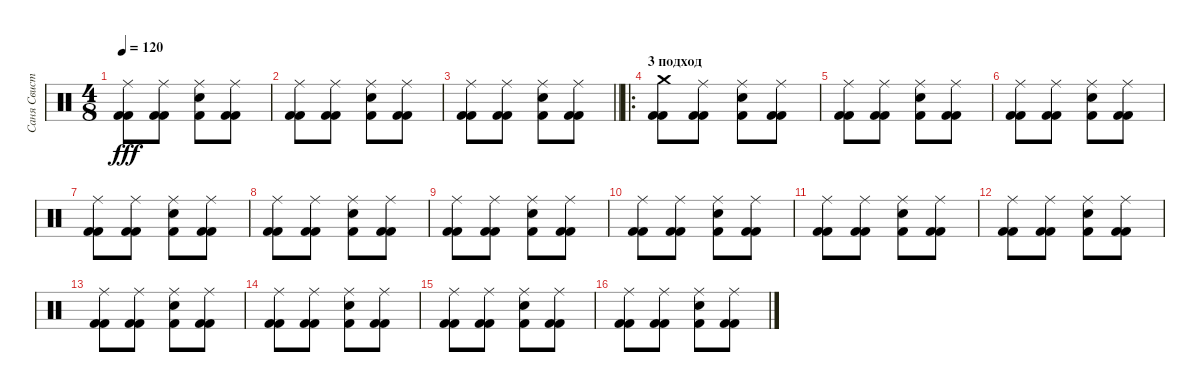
\track ("Саня Свистун - Drums" "Саня Свист") {instrument percussion}
\staff {score}
\articulation defaults
\ts (4 8)
\tempo 120
\clef neutral
\ks c
("Kick (hit) 2" "Kick (hit) 2" "Ride (middle)").8{dy fff} ("Kick (hit) 2" "Kick (hit) 2" "Ride (middle)").8 ("Electric Snare (hit)" "Kick (hit) 2" "Ride (middle)").8 ("Kick (hit) 2" "Kick (hit) 2" "Ride (middle)").8 |
("Kick (hit) 2" "Kick (hit) 2" "Ride (middle)").8 ("Kick (hit) 2" "Kick (hit) 2" "Ride (middle)").8 ("Electric Snare (hit)" "Kick (hit) 2" "Ride (middle)").8 ("Kick (hit) 2" "Kick (hit) 2" "Ride (middle)").8 |
\barLineRight lightlight
("Kick (hit) 2" "Kick (hit) 2" "Ride (middle)").8 ("Kick (hit) 2" "Kick (hit) 2" "Ride (middle)").8 ("Electric Snare (hit)" "Kick (hit) 2" "Ride (middle)").8 ("Kick (hit) 2" "Kick (hit) 2" "Ride (middle)").8 |
\ro
\section ("" "3 подход")
("Kick (hit) 2" "Kick (hit) 2" "Crash medium (hit)").8 ("Kick (hit) 2" "Kick (hit) 2" "Ride (middle)").8 ("Electric Snare (hit)" "Kick (hit) 2" "Ride (middle)").8 ("Kick (hit) 2" "Kick (hit) 2" "Ride (middle)").8 |
("Kick (hit) 2" "Kick (hit) 2" "Ride (middle)").8 ("Kick (hit) 2" "Kick (hit) 2" "Ride (middle)").8 ("Electric Snare (hit)" "Kick (hit) 2" "Ride (middle)").8 ("Kick (hit) 2" "Kick (hit) 2" "Ride (middle)").8 |
("Kick (hit) 2" "Kick (hit) 2" "Ride (middle)").8 ("Kick (hit) 2" "Kick (hit) 2" "Ride (middle)").8 ("Electric Snare (hit)" "Kick (hit) 2" "Ride (middle)").8 ("Kick (hit) 2" "Kick (hit) 2" "Ride (middle)").8 |
("Kick (hit) 2" "Kick (hit) 2" "Ride (middle)").8 ("Kick (hit) 2" "Kick (hit) 2" "Ride (middle)").8 ("Electric Snare (hit)" "Kick (hit) 2" "Ride (middle)").8 ("Kick (hit) 2" "Kick (hit) 2" "Ride (middle)").8 |
("Kick (hit) 2" "Kick (hit) 2" "Ride (middle)").8 ("Kick (hit) 2" "Kick (hit) 2" "Ride (middle)").8 ("Electric Snare (hit)" "Kick (hit) 2" "Ride (middle)").8 ("Kick (hit) 2" "Kick (hit) 2" "Ride (middle)").8 |
("Kick (hit) 2" "Kick (hit) 2" "Ride (middle)").8 ("Kick (hit) 2" "Kick (hit) 2" "Ride (middle)").8 ("Electric Snare (hit)" "Kick (hit) 2" "Ride (middle)").8 ("Kick (hit) 2" "Kick (hit) 2" "Ride (middle)").8 |
("Kick (hit) 2" "Kick (hit) 2" "Ride (middle)").8 ("Kick (hit) 2" "Kick (hit) 2" "Ride (middle)").8 ("Electric Snare (hit)" "Kick (hit) 2" "Ride (middle)").8 ("Kick (hit) 2" "Kick (hit) 2" "Ride (middle)").8 |
("Kick (hit) 2" "Kick (hit) 2" "Ride (middle)").8 ("Kick (hit) 2" "Kick (hit) 2" "Ride (middle)").8 ("Electric Snare (hit)" "Kick (hit) 2" "Ride (middle)").8 ("Kick (hit) 2" "Kick (hit) 2" "Ride (middle)").8 |
("Kick (hit) 2" "Kick (hit) 2" "Ride (middle)").8 ("Kick (hit) 2" "Kick (hit) 2" "Ride (middle)").8 ("Electric Snare (hit)" "Kick (hit) 2" "Ride (middle)").8 ("Kick (hit) 2" "Kick (hit) 2" "Ride (middle)").8 |
("Kick (hit) 2" "Kick (hit) 2" "Ride (middle)").8 ("Kick (hit) 2" "Kick (hit) 2" "Ride (middle)").8 ("Electric Snare (hit)" "Kick (hit) 2" "Ride (middle)").8 ("Kick (hit) 2" "Kick (hit) 2" "Ride (middle)").8 |
("Kick (hit) 2" "Kick (hit) 2" "Ride (middle)").8 ("Kick (hit) 2" "Kick (hit) 2" "Ride (middle)").8 ("Electric Snare (hit)" "Kick (hit) 2" "Ride (middle)").8 ("Kick (hit) 2" "Kick (hit) 2" "Ride (middle)").8 |
("Kick (hit) 2" "Kick (hit) 2" "Ride (middle)").8 ("Kick (hit) 2" "Kick (hit) 2" "Ride (middle)").8 ("Electric Snare (hit)" "Kick (hit) 2" "Ride (middle)").8 ("Kick (hit) 2" "Kick (hit) 2" "Ride (middle)").8 |
("Kick (hit) 2" "Kick (hit) 2" "Ride (middle)").8 ("Kick (hit) 2" "Kick (hit) 2" "Ride (middle)").8 ("Electric Snare (hit)" "Kick (hit) 2" "Ride (middle)").8 ("Kick (hit) 2" "Kick (hit) 2" "Ride (middle)").8
